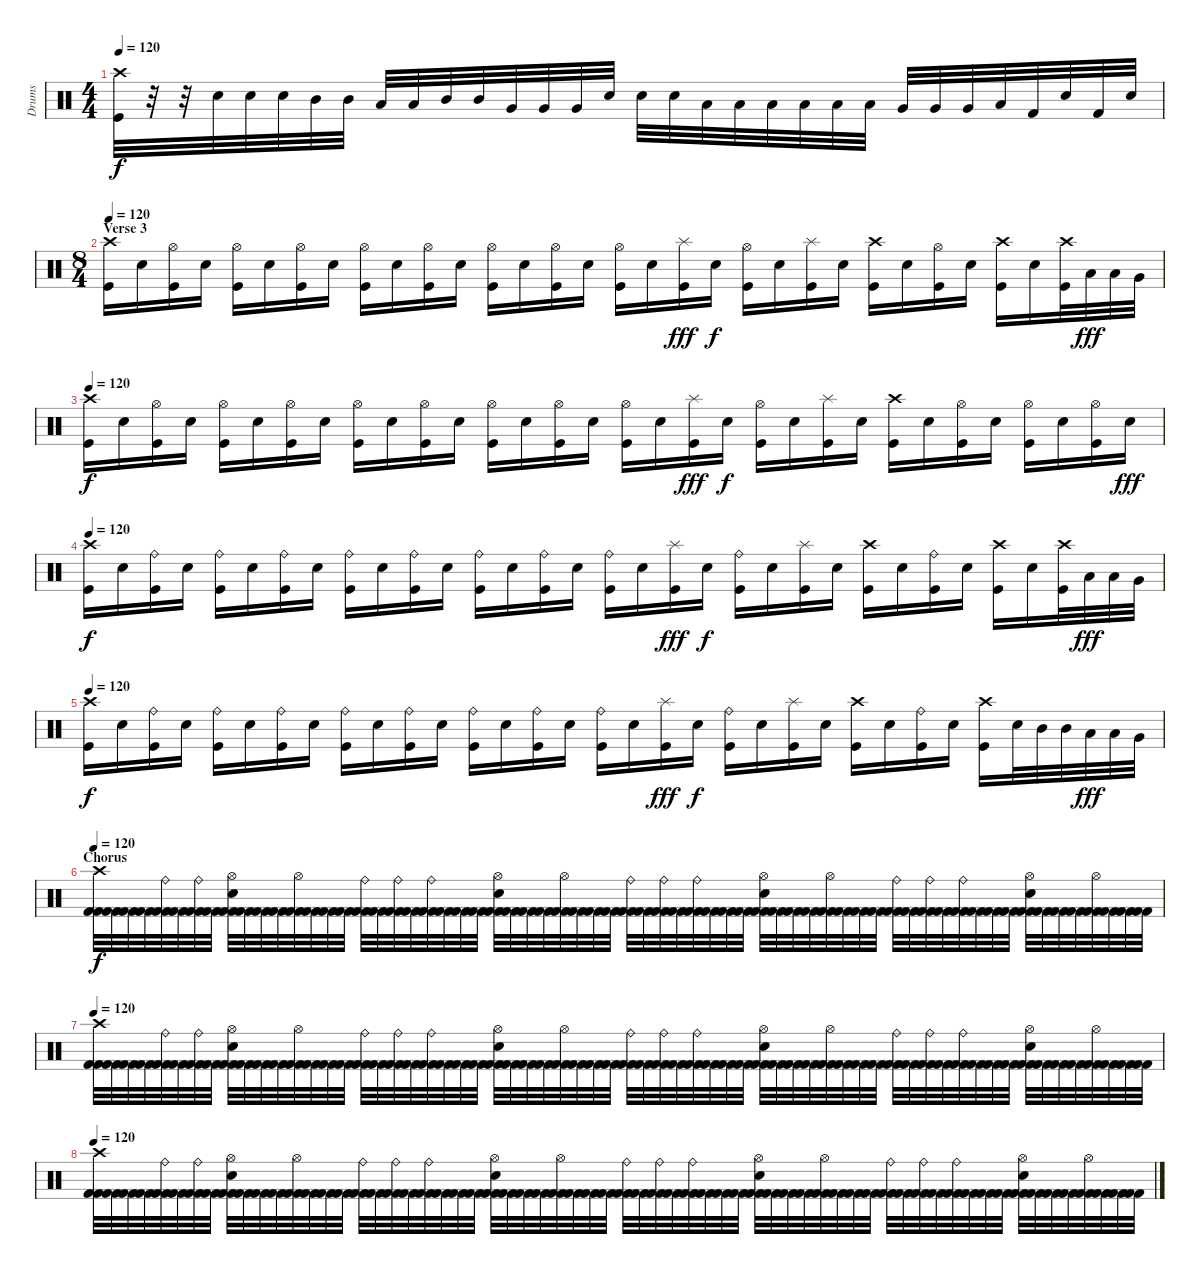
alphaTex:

\track ("Drums" "Drums") {instrument percussion}
\staff {score}
\articulation defaults
\ts (4 4)
\tempo 120
\clef neutral
\ks c
("Crash high (hit)" "Kick (hit)").32{dy f} r.32 r.32 "Electric Snare (hit)".32 "Electric Snare (hit)".32 "Electric Snare (hit)".32 "Mid Tom (hit)".32 "Mid Tom (hit)".32 "Low Tom (hit)".32 "Low Tom (hit)".32 "Mid Tom (hit)".32 "Mid Tom (hit)".32 "Very Low Tom (hit)".32 "Very Low Tom (hit)".32 "Very Low Tom (hit)".32 "Electric Snare (hit)".32 "Electric Snare (hit)".32 "Electric Snare (hit)".32 "Low Tom (hit)".32 "Low Tom (hit)".32 "Low Tom (hit)".32 "Low Floor Tom (hit)".32 "Low Floor Tom (hit)".32 "Low Floor Tom (hit)".32 "Very Low Tom (hit)".32 "Very Low Tom (hit)".32 "Very Low Tom (hit)".32 "Low Floor Tom (hit)".32 "Kick (hit) 2".32 "Electric Snare (hit)".32 "Kick (hit) 2".32 "Electric Snare (hit)".32 |
\ts (8 4)
\section ("" "Verse 3")
\tempo 120
("Crash high (hit)" "Kick (hit)").16 "Electric Snare (hit)".16 ("Hi-Hat (open)" "Kick (hit)").16 "Electric Snare (hit)".16 ("Hi-Hat (open)" "Kick (hit)").16 "Electric Snare (hit)".16 ("Hi-Hat (open)" "Kick (hit)").16 "Electric Snare (hit)".16 ("Hi-Hat (open)" "Kick (hit)").16 "Electric Snare (hit)".16 ("Hi-Hat (open)" "Kick (hit)").16 "Electric Snare (hit)".16 ("Hi-Hat (open)" "Kick (hit)").16 "Electric Snare (hit)".16 ("Hi-Hat (open)" "Kick (hit)").16 "Electric Snare (hit)".16 ("Hi-Hat (open)" "Kick (hit)").16 "Electric Snare (hit)".16 ("Splash (hit)" "Kick (hit)").16{dy fff} "Electric Snare (hit)".16{dy f} ("Hi-Hat (open)" "Kick (hit)").16 "Electric Snare (hit)".16 ("Splash (hit)" "Kick (hit)").16 "Electric Snare (hit)".16 ("Crash high (hit)" "Kick (hit)").16 "Electric Snare (hit)".16 ("Hi-Hat (open)" "Kick (hit)").16 "Electric Snare (hit)".16 ("Crash high (hit)" "Kick (hit)").16 "Electric Snare (hit)".16 ("Crash high (hit)" "Kick (hit)").32 "Low Tom (hit)".32{dy fff} "Low Tom (hit)".32 "Very Low Tom (hit)".32 |
\tempo 120
("Crash high (hit)" "Kick (hit)").16{dy f} "Electric Snare (hit)".16 ("Hi-Hat (open)" "Kick (hit)").16 "Electric Snare (hit)".16 ("Hi-Hat (open)" "Kick (hit)").16 "Electric Snare (hit)".16 ("Hi-Hat (open)" "Kick (hit)").16 "Electric Snare (hit)".16 ("Hi-Hat (open)" "Kick (hit)").16 "Electric Snare (hit)".16 ("Hi-Hat (open)" "Kick (hit)").16 "Electric Snare (hit)".16 ("Hi-Hat (open)" "Kick (hit)").16 "Electric Snare (hit)".16 ("Hi-Hat (open)" "Kick (hit)").16 "Electric Snare (hit)".16 ("Hi-Hat (open)" "Kick (hit)").16 "Electric Snare (hit)".16 ("Splash (hit)" "Kick (hit)").16{dy fff} "Electric Snare (hit)".16{dy f} ("Hi-Hat (open)" "Kick (hit)").16 "Electric Snare (hit)".16 ("Splash (hit)" "Kick (hit)").16 "Electric Snare (hit)".16 ("Crash high (hit)" "Kick (hit)").16 "Electric Snare (hit)".16 ("Hi-Hat (open)" "Kick (hit)").16 "Electric Snare (hit)".16 ("Hi-Hat (open)" "Kick (hit)").16 "Electric Snare (hit)".16 ("Hi-Hat (open)" "Kick (hit)").16 "Electric Snare (hit)".16{dy fff} |
\tempo 120
("Crash high (hit)" "Kick (hit)").16{dy f} "Electric Snare (hit)".16 ("Ride (bell)" "Kick (hit)").16 "Electric Snare (hit)".16 ("Ride (bell)" "Kick (hit)").16 "Electric Snare (hit)".16 ("Ride (bell)" "Kick (hit)").16 "Electric Snare (hit)".16 ("Ride (bell)" "Kick (hit)").16 "Electric Snare (hit)".16 ("Ride (bell)" "Kick (hit)").16 "Electric Snare (hit)".16 ("Ride (bell)" "Kick (hit)").16 "Electric Snare (hit)".16 ("Ride (bell)" "Kick (hit)").16 "Electric Snare (hit)".16 ("Ride (bell)" "Kick (hit)").16 "Electric Snare (hit)".16 ("Splash (hit)" "Kick (hit)").16{dy fff} "Electric Snare (hit)".16{dy f} ("Ride (bell)" "Kick (hit)").16 "Electric Snare (hit)".16 ("Splash (hit)" "Kick (hit)").16 "Electric Snare (hit)".16 ("Crash high (hit)" "Kick (hit)").16 "Electric Snare (hit)".16 ("Ride (bell)" "Kick (hit)").16 "Electric Snare (hit)".16 ("Crash high (hit)" "Kick (hit)").16 "Electric Snare (hit)".16 ("Crash high (hit)" "Kick (hit)").32 "Low Tom (hit)".32{dy fff} "Low Tom (hit)".32 "Very Low Tom (hit)".32 |
\tempo 120
("Crash high (hit)" "Kick (hit)").16{dy f} "Electric Snare (hit)".16 ("Ride (bell)" "Kick (hit)").16 "Electric Snare (hit)".16 ("Ride (bell)" "Kick (hit)").16 "Electric Snare (hit)".16 ("Ride (bell)" "Kick (hit)").16 "Electric Snare (hit)".16 ("Ride (bell)" "Kick (hit)").16 "Electric Snare (hit)".16 ("Ride (bell)" "Kick (hit)").16 "Electric Snare (hit)".16 ("Ride (bell)" "Kick (hit)").16 "Electric Snare (hit)".16 ("Ride (bell)" "Kick (hit)").16 "Electric Snare (hit)".16 ("Ride (bell)" "Kick (hit)").16 "Electric Snare (hit)".16 ("Splash (hit)" "Kick (hit)").16{dy fff} "Electric Snare (hit)".16{dy f} ("Ride (bell)" "Kick (hit)").16 "Electric Snare (hit)".16 ("Splash (hit)" "Kick (hit)").16 "Electric Snare (hit)".16 ("Crash high (hit)" "Kick (hit)").16 "Electric Snare (hit)".16 ("Ride (bell)" "Kick (hit)").16 "Electric Snare (hit)".16 ("Crash high (hit)" "Kick (hit)").16 "Electric Snare (hit)".32 "Mid Tom (hit)".32 "Mid Tom (hit)".32 "Low Tom (hit)".32{dy fff} "Low Tom (hit)".32 "Very Low Tom (hit)".32 |
\section ("" "Chorus")
\tempo 120
("Crash high (hit)" "Kick (hit) 2" "Kick (hit) 2").32{dy f} ("Kick (hit) 2" "Kick (hit) 2").32 ("Kick (hit) 2" "Kick (hit) 2").32 ("Kick (hit) 2" "Kick (hit) 2").32 ("Ride (bell)" "Kick (hit) 2" "Kick (hit) 2").32 ("Kick (hit) 2" "Kick (hit) 2").32 ("Ride (bell)" "Kick (hit) 2" "Kick (hit) 2").32 ("Kick (hit) 2" "Kick (hit) 2").32 ("Hi-Hat (open)" "Electric Snare (hit)" "Kick (hit) 2" "Kick (hit) 2").32 ("Kick (hit) 2" "Kick (hit) 2").32 ("Kick (hit) 2" "Kick (hit) 2").32 ("Kick (hit) 2" "Kick (hit) 2").32 ("Hi-Hat (open)" "Kick (hit) 2" "Kick (hit) 2").32 ("Kick (hit) 2" "Kick (hit) 2").32 ("Kick (hit) 2" "Kick (hit) 2").32 ("Kick (hit) 2" "Kick (hit) 2").32 ("Ride (bell)" "Kick (hit) 2" "Kick (hit) 2").32 ("Kick (hit) 2" "Kick (hit) 2").32 ("Ride (bell)" "Kick (hit) 2" "Kick (hit) 2").32 ("Kick (hit) 2" "Kick (hit) 2").32 ("Ride (bell)" "Kick (hit) 2" "Kick (hit) 2").32 ("Kick (hit) 2" "Kick (hit) 2").32 ("Kick (hit) 2" "Kick (hit) 2").32 ("Kick (hit) 2" "Kick (hit) 2").32 ("Hi-Hat (open)" "Electric Snare (hit)" "Kick (hit) 2" "Kick (hit) 2").32 ("Kick (hit) 2" "Kick (hit) 2").32 ("Kick (hit) 2" "Kick (hit) 2").32 ("Kick (hit) 2" "Kick (hit) 2").32 ("Hi-Hat (open)" "Kick (hit) 2" "Kick (hit) 2").32 ("Kick (hit) 2" "Kick (hit) 2").32 ("Kick (hit) 2" "Kick (hit) 2").32 ("Kick (hit) 2" "Kick (hit) 2").32 ("Ride (bell)" "Kick (hit) 2" "Kick (hit) 2").32 ("Kick (hit) 2" "Kick (hit) 2").32 ("Ride (bell)" "Kick (hit) 2" "Kick (hit) 2").32 ("Kick (hit) 2" "Kick (hit) 2").32 ("Ride (bell)" "Kick (hit) 2" "Kick (hit) 2").32 ("Kick (hit) 2" "Kick (hit) 2").32 ("Kick (hit) 2" "Kick (hit) 2").32 ("Kick (hit) 2" "Kick (hit) 2").32 ("Hi-Hat (open)" "Electric Snare (hit)" "Kick (hit) 2" "Kick (hit) 2").32 ("Kick (hit) 2" "Kick (hit) 2").32 ("Kick (hit) 2" "Kick (hit) 2").32 ("Kick (hit) 2" "Kick (hit) 2").32 ("Hi-Hat (open)" "Kick (hit) 2" "Kick (hit) 2").32 ("Kick (hit) 2" "Kick (hit) 2").32 ("Kick (hit) 2" "Kick (hit) 2").32 ("Kick (hit) 2" "Kick (hit) 2").32 ("Ride (bell)" "Kick (hit) 2" "Kick (hit) 2").32 ("Kick (hit) 2" "Kick (hit) 2").32 ("Ride (bell)" "Kick (hit) 2" "Kick (hit) 2").32 ("Kick (hit) 2" "Kick (hit) 2").32 ("Ride (bell)" "Kick (hit) 2" "Kick (hit) 2").32 ("Kick (hit) 2" "Kick (hit) 2").32 ("Kick (hit) 2" "Kick (hit) 2").32 ("Kick (hit) 2" "Kick (hit) 2").32 ("Hi-Hat (open)" "Electric Snare (hit)" "Kick (hit) 2" "Kick (hit) 2").32 ("Kick (hit) 2" "Kick (hit) 2").32 ("Kick (hit) 2" "Kick (hit) 2").32 ("Kick (hit) 2" "Kick (hit) 2").32 ("Hi-Hat (open)" "Kick (hit) 2" "Kick (hit) 2").32 ("Kick (hit) 2" "Kick (hit) 2").32 ("Kick (hit) 2" "Kick (hit) 2").32 ("Kick (hit) 2" "Kick (hit) 2").32 |
\tempo 120
("Crash high (hit)" "Kick (hit) 2" "Kick (hit) 2").32 ("Kick (hit) 2" "Kick (hit) 2").32 ("Kick (hit) 2" "Kick (hit) 2").32 ("Kick (hit) 2" "Kick (hit) 2").32 ("Ride (bell)" "Kick (hit) 2" "Kick (hit) 2").32 ("Kick (hit) 2" "Kick (hit) 2").32 ("Ride (bell)" "Kick (hit) 2" "Kick (hit) 2").32 ("Kick (hit) 2" "Kick (hit) 2").32 ("Hi-Hat (open)" "Electric Snare (hit)" "Kick (hit) 2" "Kick (hit) 2").32 ("Kick (hit) 2" "Kick (hit) 2").32 ("Kick (hit) 2" "Kick (hit) 2").32 ("Kick (hit) 2" "Kick (hit) 2").32 ("Hi-Hat (open)" "Kick (hit) 2" "Kick (hit) 2").32 ("Kick (hit) 2" "Kick (hit) 2").32 ("Kick (hit) 2" "Kick (hit) 2").32 ("Kick (hit) 2" "Kick (hit) 2").32 ("Ride (bell)" "Kick (hit) 2" "Kick (hit) 2").32 ("Kick (hit) 2" "Kick (hit) 2").32 ("Ride (bell)" "Kick (hit) 2" "Kick (hit) 2").32 ("Kick (hit) 2" "Kick (hit) 2").32 ("Ride (bell)" "Kick (hit) 2" "Kick (hit) 2").32 ("Kick (hit) 2" "Kick (hit) 2").32 ("Kick (hit) 2" "Kick (hit) 2").32 ("Kick (hit) 2" "Kick (hit) 2").32 ("Hi-Hat (open)" "Electric Snare (hit)" "Kick (hit) 2" "Kick (hit) 2").32 ("Kick (hit) 2" "Kick (hit) 2").32 ("Kick (hit) 2" "Kick (hit) 2").32 ("Kick (hit) 2" "Kick (hit) 2").32 ("Hi-Hat (open)" "Kick (hit) 2" "Kick (hit) 2").32 ("Kick (hit) 2" "Kick (hit) 2").32 ("Kick (hit) 2" "Kick (hit) 2").32 ("Kick (hit) 2" "Kick (hit) 2").32 ("Ride (bell)" "Kick (hit) 2" "Kick (hit) 2").32 ("Kick (hit) 2" "Kick (hit) 2").32 ("Ride (bell)" "Kick (hit) 2" "Kick (hit) 2").32 ("Kick (hit) 2" "Kick (hit) 2").32 ("Ride (bell)" "Kick (hit) 2" "Kick (hit) 2").32 ("Kick (hit) 2" "Kick (hit) 2").32 ("Kick (hit) 2" "Kick (hit) 2").32 ("Kick (hit) 2" "Kick (hit) 2").32 ("Hi-Hat (open)" "Electric Snare (hit)" "Kick (hit) 2" "Kick (hit) 2").32 ("Kick (hit) 2" "Kick (hit) 2").32 ("Kick (hit) 2" "Kick (hit) 2").32 ("Kick (hit) 2" "Kick (hit) 2").32 ("Hi-Hat (open)" "Kick (hit) 2" "Kick (hit) 2").32 ("Kick (hit) 2" "Kick (hit) 2").32 ("Kick (hit) 2" "Kick (hit) 2").32 ("Kick (hit) 2" "Kick (hit) 2").32 ("Ride (bell)" "Kick (hit) 2" "Kick (hit) 2").32 ("Kick (hit) 2" "Kick (hit) 2").32 ("Ride (bell)" "Kick (hit) 2" "Kick (hit) 2").32 ("Kick (hit) 2" "Kick (hit) 2").32 ("Ride (bell)" "Kick (hit) 2" "Kick (hit) 2").32 ("Kick (hit) 2" "Kick (hit) 2").32 ("Kick (hit) 2" "Kick (hit) 2").32 ("Kick (hit) 2" "Kick (hit) 2").32 ("Hi-Hat (open)" "Electric Snare (hit)" "Kick (hit) 2" "Kick (hit) 2").32 ("Kick (hit) 2" "Kick (hit) 2").32 ("Kick (hit) 2" "Kick (hit) 2").32 ("Kick (hit) 2" "Kick (hit) 2").32 ("Hi-Hat (open)" "Kick (hit) 2" "Kick (hit) 2").32 ("Kick (hit) 2" "Kick (hit) 2").32 ("Kick (hit) 2" "Kick (hit) 2").32 ("Kick (hit) 2" "Kick (hit) 2").32 |
\tempo 120
("Crash high (hit)" "Kick (hit) 2" "Kick (hit) 2").32 ("Kick (hit) 2" "Kick (hit) 2").32 ("Kick (hit) 2" "Kick (hit) 2").32 ("Kick (hit) 2" "Kick (hit) 2").32 ("Ride (bell)" "Kick (hit) 2" "Kick (hit) 2").32 ("Kick (hit) 2" "Kick (hit) 2").32 ("Ride (bell)" "Kick (hit) 2" "Kick (hit) 2").32 ("Kick (hit) 2" "Kick (hit) 2").32 ("Hi-Hat (open)" "Electric Snare (hit)" "Kick (hit) 2" "Kick (hit) 2").32 ("Kick (hit) 2" "Kick (hit) 2").32 ("Kick (hit) 2" "Kick (hit) 2").32 ("Kick (hit) 2" "Kick (hit) 2").32 ("Hi-Hat (open)" "Kick (hit) 2" "Kick (hit) 2").32 ("Kick (hit) 2" "Kick (hit) 2").32 ("Kick (hit) 2" "Kick (hit) 2").32 ("Kick (hit) 2" "Kick (hit) 2").32 ("Ride (bell)" "Kick (hit) 2" "Kick (hit) 2").32 ("Kick (hit) 2" "Kick (hit) 2").32 ("Ride (bell)" "Kick (hit) 2" "Kick (hit) 2").32 ("Kick (hit) 2" "Kick (hit) 2").32 ("Ride (bell)" "Kick (hit) 2" "Kick (hit) 2").32 ("Kick (hit) 2" "Kick (hit) 2").32 ("Kick (hit) 2" "Kick (hit) 2").32 ("Kick (hit) 2" "Kick (hit) 2").32 ("Hi-Hat (open)" "Electric Snare (hit)" "Kick (hit) 2" "Kick (hit) 2").32 ("Kick (hit) 2" "Kick (hit) 2").32 ("Kick (hit) 2" "Kick (hit) 2").32 ("Kick (hit) 2" "Kick (hit) 2").32 ("Hi-Hat (open)" "Kick (hit) 2" "Kick (hit) 2").32 ("Kick (hit) 2" "Kick (hit) 2").32 ("Kick (hit) 2" "Kick (hit) 2").32 ("Kick (hit) 2" "Kick (hit) 2").32 ("Ride (bell)" "Kick (hit) 2" "Kick (hit) 2").32 ("Kick (hit) 2" "Kick (hit) 2").32 ("Ride (bell)" "Kick (hit) 2" "Kick (hit) 2").32 ("Kick (hit) 2" "Kick (hit) 2").32 ("Ride (bell)" "Kick (hit) 2" "Kick (hit) 2").32 ("Kick (hit) 2" "Kick (hit) 2").32 ("Kick (hit) 2" "Kick (hit) 2").32 ("Kick (hit) 2" "Kick (hit) 2").32 ("Hi-Hat (open)" "Electric Snare (hit)" "Kick (hit) 2" "Kick (hit) 2").32 ("Kick (hit) 2" "Kick (hit) 2").32 ("Kick (hit) 2" "Kick (hit) 2").32 ("Kick (hit) 2" "Kick (hit) 2").32 ("Hi-Hat (open)" "Kick (hit) 2" "Kick (hit) 2").32 ("Kick (hit) 2" "Kick (hit) 2").32 ("Kick (hit) 2" "Kick (hit) 2").32 ("Kick (hit) 2" "Kick (hit) 2").32 ("Ride (bell)" "Kick (hit) 2" "Kick (hit) 2").32 ("Kick (hit) 2" "Kick (hit) 2").32 ("Ride (bell)" "Kick (hit) 2" "Kick (hit) 2").32 ("Kick (hit) 2" "Kick (hit) 2").32 ("Ride (bell)" "Kick (hit) 2" "Kick (hit) 2").32 ("Kick (hit) 2" "Kick (hit) 2").32 ("Kick (hit) 2" "Kick (hit) 2").32 ("Kick (hit) 2" "Kick (hit) 2").32 ("Hi-Hat (open)" "Electric Snare (hit)" "Kick (hit) 2" "Kick (hit) 2").32 ("Kick (hit) 2" "Kick (hit) 2").32 ("Kick (hit) 2" "Kick (hit) 2").32 ("Kick (hit) 2" "Kick (hit) 2").32 ("Hi-Hat (open)" "Kick (hit) 2" "Kick (hit) 2").32 ("Kick (hit) 2" "Kick (hit) 2").32 ("Kick (hit) 2" "Kick (hit) 2").32 ("Kick (hit) 2" "Kick (hit) 2").32
